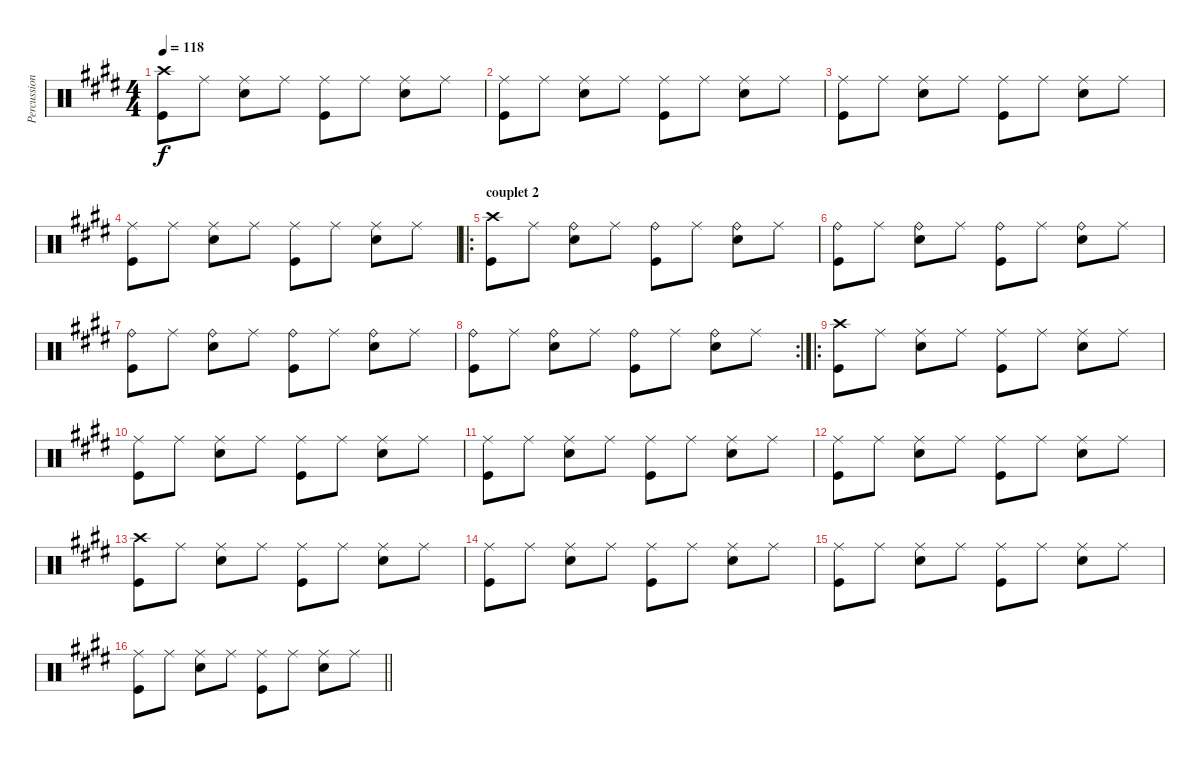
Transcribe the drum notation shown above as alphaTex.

\track ("Percussions" "Percussion") {instrument percussion}
\staff {score}
\articulation defaults
\ts (4 4)
\tempo 118
\clef neutral
\ks e
("Crash high (hit)" "Kick (hit)").8{dy f} "Ride (middle)".8 ("Ride (middle)" "Electric Snare (hit)").8 "Ride (middle)".8 ("Ride (middle)" "Kick (hit)").8 "Ride (middle)".8 ("Ride (middle)" "Electric Snare (hit)").8 "Ride (middle)".8 |
("Ride (middle)" "Kick (hit)").8 "Ride (middle)".8 ("Ride (middle)" "Electric Snare (hit)").8 "Ride (middle)".8 ("Ride (middle)" "Kick (hit)").8 "Ride (middle)".8 ("Ride (middle)" "Electric Snare (hit)").8 "Ride (middle)".8 |
("Ride (middle)" "Kick (hit)").8 "Ride (middle)".8 ("Ride (middle)" "Electric Snare (hit)").8 "Ride (middle)".8 ("Ride (middle)" "Kick (hit)").8 "Ride (middle)".8 ("Ride (middle)" "Electric Snare (hit)").8 "Ride (middle)".8 |
("Ride (middle)" "Kick (hit)").8 "Ride (middle)".8 ("Ride (middle)" "Electric Snare (hit)").8 "Ride (middle)".8 ("Ride (middle)" "Kick (hit)").8 "Ride (middle)".8 ("Ride (middle)" "Electric Snare (hit)").8 "Ride (middle)".8 |
\ro
\section ("" "couplet 2")
("Crash high (hit)" "Kick (hit)").8 "Ride (middle)".8 ("Ride (bell)" "Electric Snare (hit)").8 "Ride (middle)".8 ("Ride (bell)" "Kick (hit)").8 "Ride (middle)".8 ("Ride (bell)" "Electric Snare (hit)").8 "Ride (middle)".8 |
("Ride (bell)" "Kick (hit)").8 "Ride (middle)".8 ("Ride (bell)" "Electric Snare (hit)").8 "Ride (middle)".8 ("Ride (bell)" "Kick (hit)").8 "Ride (middle)".8 ("Ride (bell)" "Electric Snare (hit)").8 "Ride (middle)".8 |
("Ride (bell)" "Kick (hit)").8 "Ride (middle)".8 ("Ride (bell)" "Electric Snare (hit)").8 "Ride (middle)".8 ("Ride (bell)" "Kick (hit)").8 "Ride (middle)".8 ("Ride (bell)" "Electric Snare (hit)").8 "Ride (middle)".8 |
\rc 2
("Ride (bell)" "Kick (hit)").8 "Ride (middle)".8 ("Ride (bell)" "Electric Snare (hit)").8 "Ride (middle)".8 ("Ride (bell)" "Kick (hit)").8 "Ride (middle)".8 ("Ride (bell)" "Electric Snare (hit)").8 "Ride (middle)".8 |
\ro
("Crash high (hit)" "Kick (hit)").8 "Ride (middle)".8 ("Ride (middle)" "Electric Snare (hit)").8 "Ride (middle)".8 ("Ride (middle)" "Kick (hit)").8 "Ride (middle)".8 ("Ride (middle)" "Electric Snare (hit)").8 "Ride (middle)".8 |
("Ride (middle)" "Kick (hit)").8 "Ride (middle)".8 ("Ride (middle)" "Electric Snare (hit)").8 "Ride (middle)".8 ("Ride (middle)" "Kick (hit)").8 "Ride (middle)".8 ("Ride (middle)" "Electric Snare (hit)").8 "Ride (middle)".8 |
("Ride (middle)" "Kick (hit)").8 "Ride (middle)".8 ("Ride (middle)" "Electric Snare (hit)").8 "Ride (middle)".8 ("Ride (middle)" "Kick (hit)").8 "Ride (middle)".8 ("Ride (middle)" "Electric Snare (hit)").8 "Ride (middle)".8 |
("Ride (middle)" "Kick (hit)").8 "Ride (middle)".8 ("Ride (middle)" "Electric Snare (hit)").8 "Ride (middle)".8 ("Ride (middle)" "Kick (hit)").8 "Ride (middle)".8 ("Ride (middle)" "Electric Snare (hit)").8 "Ride (middle)".8 |
("Crash high (hit)" "Kick (hit)").8 "Ride (middle)".8 ("Ride (middle)" "Electric Snare (hit)").8 "Ride (middle)".8 ("Ride (middle)" "Kick (hit)").8 "Ride (middle)".8 ("Ride (middle)" "Electric Snare (hit)").8 "Ride (middle)".8 |
("Ride (middle)" "Kick (hit)").8 "Ride (middle)".8 ("Ride (middle)" "Electric Snare (hit)").8 "Ride (middle)".8 ("Ride (middle)" "Kick (hit)").8 "Ride (middle)".8 ("Ride (middle)" "Electric Snare (hit)").8 "Ride (middle)".8 |
("Ride (middle)" "Kick (hit)").8 "Ride (middle)".8 ("Ride (middle)" "Electric Snare (hit)").8 "Ride (middle)".8 ("Ride (middle)" "Kick (hit)").8 "Ride (middle)".8 ("Ride (middle)" "Electric Snare (hit)").8 "Ride (middle)".8 |
\barLineRight lightlight
("Ride (middle)" "Kick (hit)").8 "Ride (middle)".8 ("Ride (middle)" "Electric Snare (hit)").8 "Ride (middle)".8 ("Ride (middle)" "Kick (hit)").8 "Ride (middle)".8 ("Ride (middle)" "Electric Snare (hit)").8 "Ride (middle)".8
